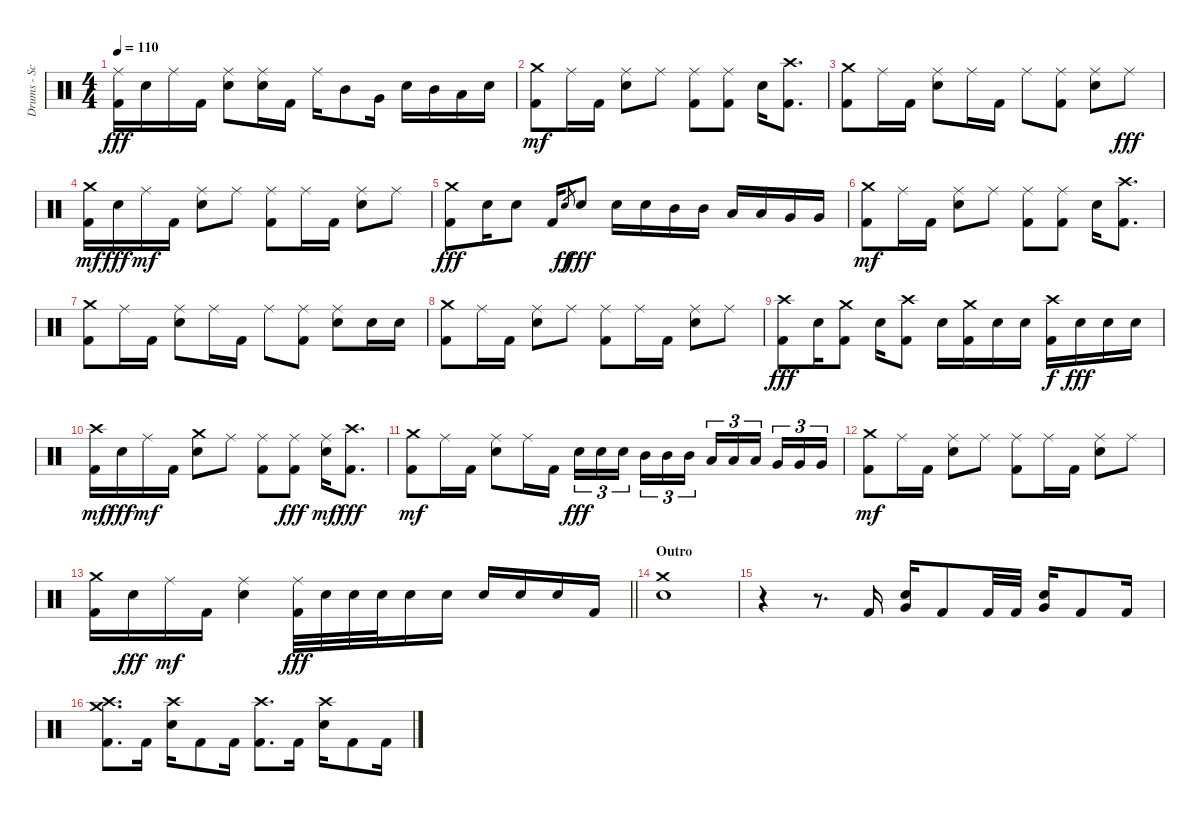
\track ("Drums - Scott" "Drums - Sc") {instrument percussion}
\staff {score}
\articulation defaults
\ts (4 4)
\tempo 110
\clef neutral
\ks c
("Ride (middle)" "Kick (hit) 2").16{dy fff} "Electric Snare (hit)".16 "Ride (middle)".16 "Kick (hit) 2".16 ("Ride (middle)" "Electric Snare (hit)").8 ("Ride (middle)" "Electric Snare (hit)").16 "Kick (hit) 2".16 "Ride (middle)".16 "Mid Tom (hit)".8 "Very Low Tom (hit)".16 "Electric Snare (hit)".16 "Mid Tom (hit)".16 "Low Tom (hit)".16 "Electric Snare (hit)".16 |
("Crash medium (hit)" "Kick (hit) 2").8{dy mf} "Ride (middle)".16 "Kick (hit) 2".16 ("Ride (middle)" "Electric Snare (hit)").8 "Ride (middle)".8 ("Ride (middle)" "Kick (hit) 2").8 ("Ride (middle)" "Kick (hit) 2").8 "Electric Snare (hit)".16 ("Crash high (hit)" "Kick (hit) 2").8{d} |
("Crash medium (hit)" "Kick (hit) 2").8 "Ride (middle)".16 "Kick (hit) 2".16 ("Ride (middle)" "Electric Snare (hit)").8 "Ride (middle)".16 "Kick (hit) 2".16 "Ride (middle)".8 ("Ride (middle)" "Kick (hit) 2").8 ("Ride (middle)" "Electric Snare (hit)").8 "Ride (middle)".8{dy fff} |
("Crash medium (hit)" "Kick (hit) 2").16{dy mf} "Electric Snare (hit)".16{dy fff} "Ride (middle)".16{dy mf} "Kick (hit) 2".16 ("Ride (middle)" "Electric Snare (hit)").8 "Ride (middle)".8 ("Ride (middle)" "Kick (hit) 2").8 "Ride (middle)".16 "Kick (hit) 2".16 ("Ride (middle)" "Electric Snare (hit)").8 "Ride (middle)".8 |
("Crash medium (hit)" "Kick (hit) 2").8{dy fff} "Electric Snare (hit)".16 "Electric Snare (hit)".8 "Kick (hit) 2".16 "Electric Snare (hit)"{h}.8{gr dy ff} "Electric Snare (hit)".8{dy fff} "Electric Snare (hit)".16 "Electric Snare (hit)".16 "Mid Tom (hit)".16 "Mid Tom (hit)".16 "Low Tom (hit)".16 "Low Tom (hit)".16 "Very Low Tom (hit)".16 "Very Low Tom (hit)".16 |
("Crash medium (hit)" "Kick (hit) 2").8{dy mf} "Ride (middle)".16 "Kick (hit) 2".16 ("Ride (middle)" "Electric Snare (hit)").8 "Ride (middle)".8 ("Ride (middle)" "Kick (hit) 2").8 ("Ride (middle)" "Kick (hit) 2").8 "Electric Snare (hit)".16 ("Crash high (hit)" "Kick (hit) 2").8{d} |
("Crash medium (hit)" "Kick (hit) 2").8 "Ride (middle)".16 "Kick (hit) 2".16 ("Ride (middle)" "Electric Snare (hit)").8 "Ride (middle)".16 "Kick (hit) 2".16 "Ride (middle)".8 ("Ride (middle)" "Kick (hit) 2").8 ("Ride (middle)" "Electric Snare (hit)").8 "Electric Snare (hit)".16 "Electric Snare (hit)".16 |
("Crash medium (hit)" "Kick (hit) 2").8 "Ride (middle)".16 "Kick (hit) 2".16 ("Ride (middle)" "Electric Snare (hit)").8 "Ride (middle)".8 ("Ride (middle)" "Kick (hit) 2").8 "Ride (middle)".16 "Kick (hit) 2".16 ("Ride (middle)" "Electric Snare (hit)").8 "Ride (middle)".8 |
("Crash high (hit)" "Kick (hit) 2").8{dy fff} "Electric Snare (hit)".16 ("Crash medium (hit)" "Kick (hit) 2").8 "Electric Snare (hit)".16 ("Crash high (hit)" "Kick (hit) 2").8 "Electric Snare (hit)".16 ("Crash medium (hit)" "Kick (hit) 2").16 "Electric Snare (hit)".16 "Electric Snare (hit)".16 ("Crash high (hit)" "Kick (hit) 2").16{dy f} "Electric Snare (hit)".16{dy fff} "Electric Snare (hit)".16 "Electric Snare (hit)".16 |
("Crash high (hit)" "Kick (hit) 2").16{dy mf} "Electric Snare (hit)".16{dy fff} "Ride (middle)".16{dy mf} "Kick (hit) 2".16 ("Crash medium (hit)" "Electric Snare (hit)").8 "Ride (middle)".8 ("Ride (middle)" "Kick (hit) 2").8 ("Ride (middle)" "Kick (hit) 2").8{dy fff} ("Ride (middle)" "Electric Snare (hit)").16{dy mf} ("Crash high (hit)" "Kick (hit) 2").8{d dy fff} |
("Crash medium (hit)" "Kick (hit) 2").8{dy mf} "Ride (middle)".16 "Kick (hit) 2".16 ("Ride (middle)" "Electric Snare (hit)").8 "Ride (middle)".16 "Kick (hit) 2".16 "Electric Snare (hit)".16{tu (3 2) dy fff} "Electric Snare (hit)".16{tu (3 2)} "Electric Snare (hit)".16{tu (3 2) beam splitsecondary} "Mid Tom (hit)".16{tu (3 2)} "Mid Tom (hit)".16{tu (3 2)} "Mid Tom (hit)".16{tu (3 2)} "Low Tom (hit)".16{tu (3 2)} "Low Tom (hit)".16{tu (3 2)} "Low Tom (hit)".16{tu (3 2) beam splitsecondary} "Very Low Tom (hit)".16{tu (3 2)} "Very Low Tom (hit)".16{tu (3 2)} "Very Low Tom (hit)".16{tu (3 2)} |
("Crash medium (hit)" "Kick (hit) 2").8{dy mf} "Ride (middle)".16 "Kick (hit) 2".16 ("Ride (middle)" "Electric Snare (hit)").8 "Ride (middle)".8 ("Ride (middle)" "Kick (hit) 2").8 "Ride (middle)".16 "Kick (hit) 2".16 ("Ride (middle)" "Electric Snare (hit)").8 "Ride (middle)".8 |
\barLineRight lightlight
("Crash medium (hit)" "Kick (hit) 2").16 "Electric Snare (hit)".16{dy fff} "Ride (middle)".16{dy mf} "Kick (hit) 2".16 ("Ride (middle)" "Electric Snare (hit)").4 ("Ride (middle)" "Kick (hit) 2").32{dy fff} "Electric Snare (hit)".32 "Electric Snare (hit)".32 "Electric Snare (hit)".32 "Electric Snare (hit)".16 "Electric Snare (hit)".16 "Electric Snare (hit)".16 "Electric Snare (hit)".16 "Electric Snare (hit)".16 "Kick (hit) 2".16 |
\section ("" "Outro")
("Crash medium (hit)" "Electric Snare (hit)").1 |
r.4 r.8{d} "Kick (hit) 2".16 ("Electric Snare (hit)" "Very Low Tom (hit)").16 "Kick (hit) 2".8 "Kick (hit) 2".32 "Kick (hit) 2".32 ("Electric Snare (hit)" "Very Low Tom (hit)").16 "Kick (hit) 2".8 "Kick (hit) 2".16 |
("Crash medium (hit)" "Crash high (hit)" "Kick (hit) 2").8{d} "Kick (hit) 2".16 ("Crash high (hit)" "Electric Snare (hit)").16 "Kick (hit) 2".8 "Kick (hit) 2".16 ("Crash high (hit)" "Kick (hit) 2").8{d} "Kick (hit) 2".16 ("Crash high (hit)" "Electric Snare (hit)").16 "Kick (hit) 2".8 "Kick (hit) 2".16
